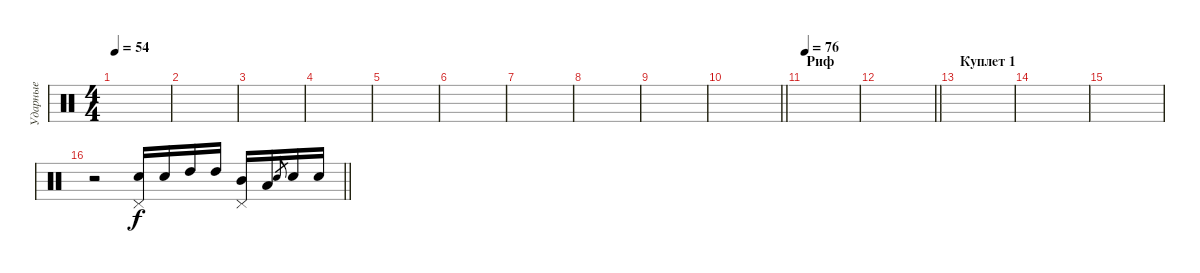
\track ("Ударные" "Ударные") {instrument percussion}
\staff {score}
\articulation defaults
\ts (4 4)
\tempo 54
\clef neutral
\ks c
|
|
|
|
|
|
|
|
|
\barLineRight lightlight
|
\section ("" "Риф")
\tempo 76
|
\barLineRight lightlight
|
\section ("" "Куплет 1")
|
|
|
\barLineRight lightlight
r.2 ("Snare (hit) 2" "Pedal Hi-Hat (hit)").16 "Snare (hit) 2".16 "High Tom (hit)".16 "High Tom (hit)".16 ("Mid Tom (hit)" "Pedal Hi-Hat (hit)").16 "Low Tom (hit)".16 "Snare (hit) 2".8{gr} "Snare (hit) 2".16 "Snare (hit) 2".16
